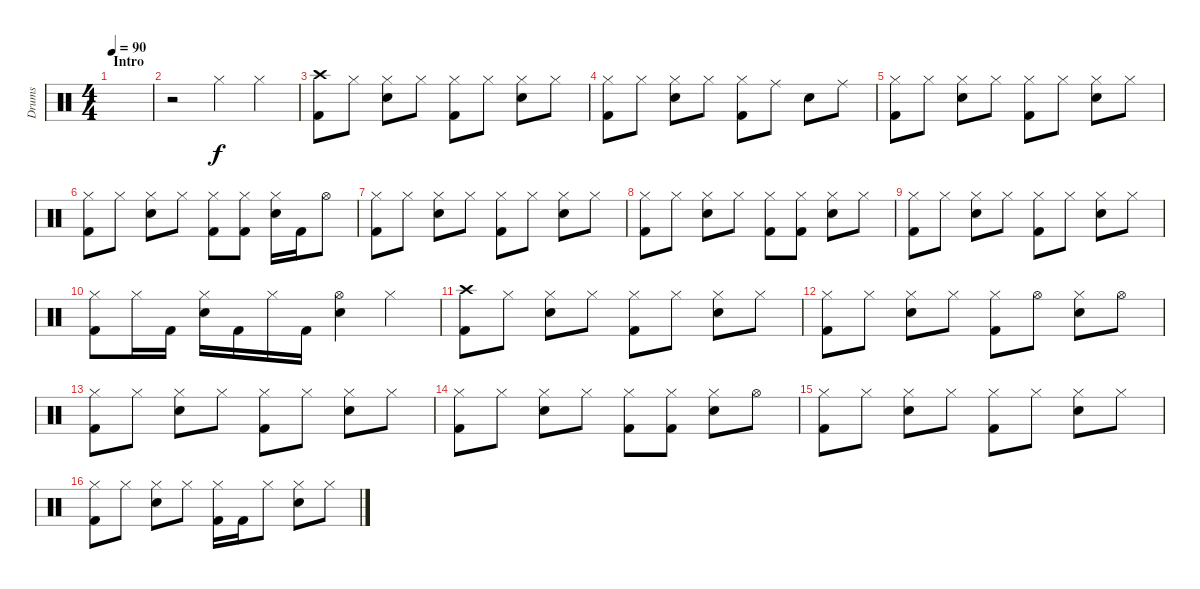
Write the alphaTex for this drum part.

\track ("Drums" "Drums") {instrument percussion}
\staff {score}
\articulation defaults
\ts (4 4)
\section ("" "Intro")
\tempo 90
\clef neutral
\ks c
|
r.2 "Hi-Hat (closed)".4 "Hi-Hat (closed)".4 |
("Crash high (hit)" "Kick (hit) 2").8 "Hi-Hat (closed)".8 ("Hi-Hat (closed)" "Electric Snare (hit)").8 "Hi-Hat (closed)".8 ("Hi-Hat (closed)" "Kick (hit) 2").8 "Hi-Hat (closed)".8 ("Hi-Hat (closed)" "Electric Snare (hit)").8 "Hi-Hat (closed)".8 |
("Hi-Hat (closed)" "Kick (hit) 2").8 "Hi-Hat (closed)".8 ("Hi-Hat (closed)" "Electric Snare (hit)").8 "Hi-Hat (closed)".8 ("Hi-Hat (closed)" "Kick (hit) 2").8 "Ride (middle)".8 "Electric Snare (hit)".8 "Ride (middle)".8 |
("Hi-Hat (closed)" "Kick (hit) 2").8 "Hi-Hat (closed)".8 ("Hi-Hat (closed)" "Electric Snare (hit)").8 "Hi-Hat (closed)".8 ("Hi-Hat (closed)" "Kick (hit) 2").8 "Hi-Hat (closed)".8 ("Hi-Hat (closed)" "Electric Snare (hit)").8 "Hi-Hat (closed)".8 |
("Hi-Hat (closed)" "Kick (hit) 2").8 "Hi-Hat (closed)".8 ("Hi-Hat (closed)" "Electric Snare (hit)").8 "Hi-Hat (closed)".8 ("Hi-Hat (closed)" "Kick (hit) 2").8 ("Hi-Hat (closed)" "Kick (hit) 2").8 ("Hi-Hat (closed)" "Electric Snare (hit)").16 "Kick (hit) 2".16 "Hi-Hat (open)".8 |
("Hi-Hat (closed)" "Kick (hit) 2").8 "Hi-Hat (closed)".8 ("Hi-Hat (closed)" "Electric Snare (hit)").8 "Hi-Hat (closed)".8 ("Hi-Hat (closed)" "Kick (hit) 2").8 "Hi-Hat (closed)".8 ("Hi-Hat (closed)" "Electric Snare (hit)").8 "Hi-Hat (closed)".8 |
("Hi-Hat (closed)" "Kick (hit) 2").8 "Hi-Hat (closed)".8 ("Hi-Hat (closed)" "Electric Snare (hit)").8 "Hi-Hat (closed)".8 ("Hi-Hat (closed)" "Kick (hit) 2").8 ("Hi-Hat (closed)" "Kick (hit) 2").8 ("Hi-Hat (closed)" "Electric Snare (hit)").8 "Hi-Hat (closed)".8 |
("Hi-Hat (closed)" "Kick (hit) 2").8 "Hi-Hat (closed)".8 ("Hi-Hat (closed)" "Electric Snare (hit)").8 "Hi-Hat (closed)".8 ("Hi-Hat (closed)" "Kick (hit) 2").8 "Hi-Hat (closed)".8 ("Hi-Hat (closed)" "Electric Snare (hit)").8 "Hi-Hat (closed)".8 |
("Hi-Hat (closed)" "Kick (hit) 2").8 "Hi-Hat (closed)".16 "Kick (hit) 2".16 ("Hi-Hat (closed)" "Electric Snare (hit)").16 "Kick (hit) 2".16 "Hi-Hat (closed)".16 "Kick (hit) 2".16 ("Hi-Hat (open)" "Electric Snare (hit)").4 "Hi-Hat (closed)".4 |
("Crash high (hit)" "Kick (hit) 2").8 "Hi-Hat (closed)".8 ("Hi-Hat (closed)" "Electric Snare (hit)").8 "Hi-Hat (closed)".8 ("Hi-Hat (closed)" "Kick (hit) 2").8 "Hi-Hat (closed)".8 ("Hi-Hat (closed)" "Electric Snare (hit)").8 "Hi-Hat (closed)".8 |
("Hi-Hat (closed)" "Kick (hit) 2").8 "Hi-Hat (closed)".8 ("Hi-Hat (closed)" "Electric Snare (hit)").8 "Hi-Hat (closed)".8 ("Hi-Hat (closed)" "Kick (hit) 2").8 "Hi-Hat (open)".8 ("Hi-Hat (closed)" "Electric Snare (hit)").8 "Hi-Hat (open)".8 |
("Hi-Hat (closed)" "Kick (hit) 2").8 "Hi-Hat (closed)".8 ("Hi-Hat (closed)" "Electric Snare (hit)").8 "Hi-Hat (closed)".8 ("Hi-Hat (closed)" "Kick (hit) 2").8 "Hi-Hat (closed)".8 ("Hi-Hat (closed)" "Electric Snare (hit)").8 "Hi-Hat (closed)".8 |
("Hi-Hat (closed)" "Kick (hit) 2").8 "Hi-Hat (closed)".8 ("Hi-Hat (closed)" "Electric Snare (hit)").8 "Hi-Hat (closed)".8 ("Hi-Hat (closed)" "Kick (hit) 2").8 ("Hi-Hat (closed)" "Kick (hit) 2").8 ("Hi-Hat (closed)" "Electric Snare (hit)").8 "Hi-Hat (open)".8 |
("Hi-Hat (closed)" "Kick (hit) 2").8 "Hi-Hat (closed)".8 ("Hi-Hat (closed)" "Electric Snare (hit)").8 "Hi-Hat (closed)".8 ("Hi-Hat (closed)" "Kick (hit) 2").8 "Hi-Hat (closed)".8 ("Hi-Hat (closed)" "Electric Snare (hit)").8 "Hi-Hat (closed)".8 |
("Hi-Hat (closed)" "Kick (hit) 2").8 "Hi-Hat (closed)".8 ("Hi-Hat (closed)" "Electric Snare (hit)").8 "Hi-Hat (closed)".8 ("Hi-Hat (closed)" "Kick (hit) 2").16 "Kick (hit) 2".16 "Hi-Hat (closed)".8 ("Hi-Hat (closed)" "Electric Snare (hit)").8 "Hi-Hat (closed)".8
